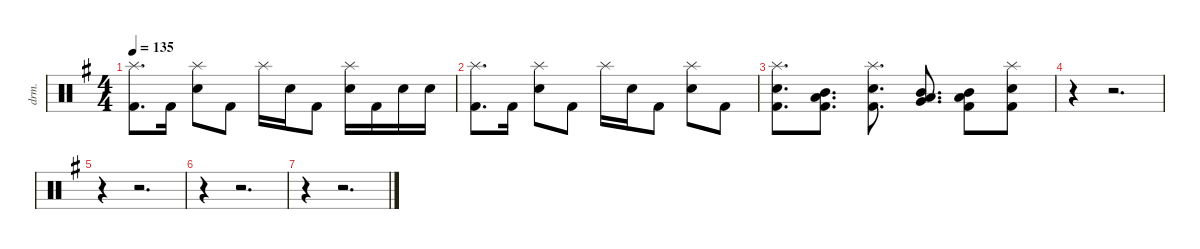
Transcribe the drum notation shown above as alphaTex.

\defaultSystemsLayout 4
\hideDynamics
\bracketExtendMode nobrackets
\track ("榧" "drm.") {instrument percussion}
\staff {score}
\articulation defaults
\ts (4 4)
\tempo 135
\clef neutral
\ks eminor
("Splash (hit)"{acc forcenatural} "Kick (hit) 2"{acc forcenatural}).8{d dy mf beam Down} "Kick (hit) 2"{acc forcenatural}.16{beam Down} ("Snare (hit) 2"{acc forcenatural} "Splash (hit)"{acc forcenatural}).8{beam Down} "Kick (hit) 2"{acc forcenatural}.8{beam Down} "Splash (hit)"{acc forcenatural}.16{beam Down} "Snare (hit) 2"{acc forcenatural}.16{beam Down} "Kick (hit) 2"{acc forcenatural}.8{beam Down} ("Splash (hit)"{acc forcenatural} "Snare (hit) 2"{acc forcenatural}).16{beam Down} "Kick (hit) 2"{acc forcenatural}.16{beam Down} "Snare (hit) 2"{acc forcenatural}.16{beam Down} "Snare (hit) 2"{acc forcenatural}.16{beam Down} |
("Splash (hit)"{acc forcenatural} "Kick (hit) 2"{acc forcenatural}).8{d beam Down} "Kick (hit) 2"{acc forcenatural}.16{beam Down} ("Snare (hit) 2"{acc forcenatural} "Splash (hit)"{acc forcenatural}).8{beam Down} "Kick (hit) 2"{acc forcenatural}.8{beam Down} "Splash (hit)"{acc forcenatural}.16{beam Down} "Snare (hit) 2"{acc forcenatural}.16{beam Down} "Kick (hit) 2"{acc forcenatural}.8{beam Down} ("Splash (hit)"{acc forcenatural} "Snare (hit) 2"{acc forcenatural}).8{beam Down} "Kick (hit) 2"{acc forcenatural}.8{beam Down} |
("Kick (hit) 2"{acc forcenatural} "Snare (hit) 2"{acc forcenatural} "Splash (hit)"{acc forcenatural}).8{d beam Down} ("Mid Tom (hit)"{acc forcenatural} "Kick (hit) 2"{acc forcenatural} "Low Tom (hit)"{acc forcenatural}).8{d beam Down} ("Kick (hit) 2"{acc forcenatural} "Snare (hit) 2"{acc forcenatural} "Splash (hit)"{acc forcenatural}).8{d beam Down} ("Mid Tom (hit)"{acc forcenatural} "Very Low Tom (hit)"{acc forcenatural} "Low Tom (hit)"{acc forcenatural}).8{d beam Up} ("Mid Tom (hit)"{acc forcenatural} "Kick (hit) 2"{acc forcenatural} "Low Tom (hit)"{acc forcenatural}).8{beam Down} ("Kick (hit) 2"{acc forcenatural} "Snare (hit) 2"{acc forcenatural} "Splash (hit)"{acc forcenatural}).8{beam Down} |
r.4{beam Down} r.2{d beam Down} |
r.4{beam Down} r.2{d beam Down} |
r.4{beam Down} r.2{d beam Down} |
r.4{beam Down} r.2{d beam Down}
